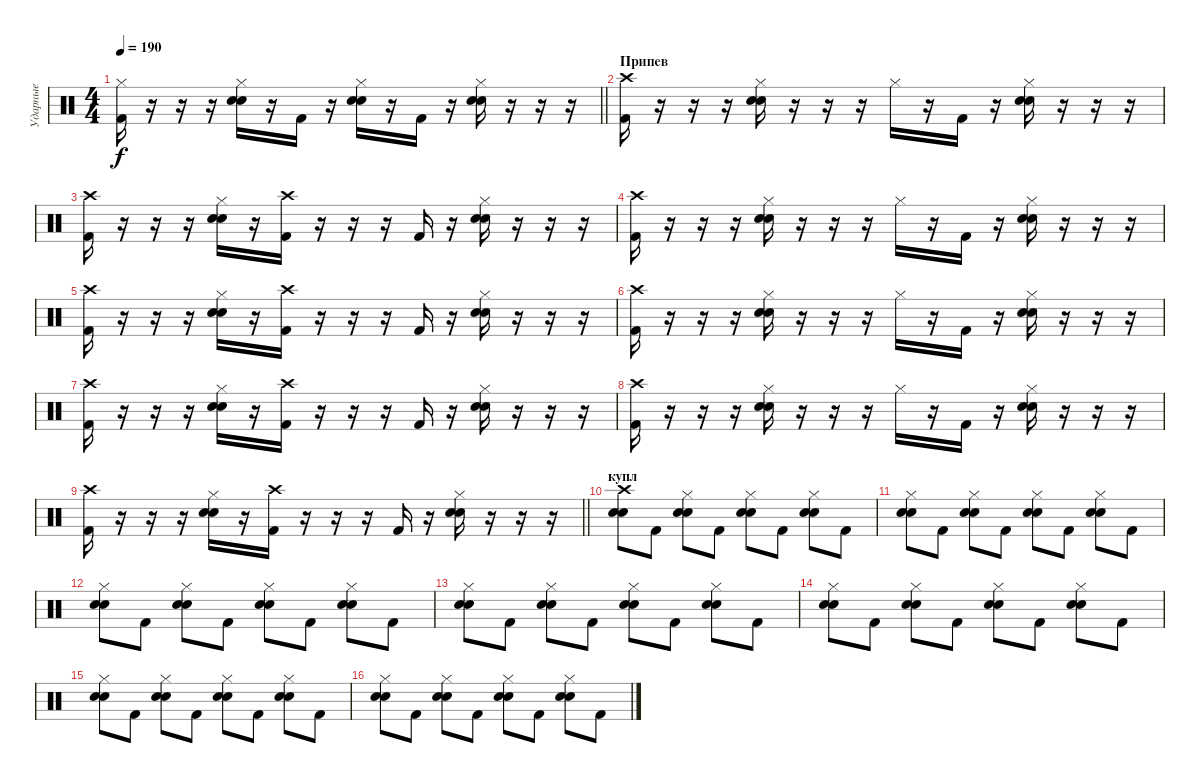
\track ("Ударные" "Ударные") {instrument percussion}
\staff {score}
\articulation defaults
\ts (4 4)
\tempo 190
\clef neutral
\barLineRight lightlight
\ks c
("Kick (hit) 2" "Hi-Hat (closed)").16{dy f} r.16 r.16 r.16 ("Snare (hit) 2" "Electric Snare (hit)" "Hi-Hat (closed)").16 r.16 "Kick (hit) 2".16 r.16 ("Snare (hit) 2" "Electric Snare (hit)" "Hi-Hat (closed)").16 r.16 "Kick (hit) 2".16 r.16 ("Snare (hit) 2" "Electric Snare (hit)" "Hi-Hat (closed)").16 r.16 r.16 r.16 |
\section ("" "Припев")
("Kick (hit) 2" "Crash high (hit)").16 r.16 r.16 r.16 ("Snare (hit) 2" "Electric Snare (hit)" "Hi-Hat (closed)").16 r.16 r.16 r.16 "Hi-Hat (closed)".16 r.16 "Kick (hit) 2".16 r.16 ("Snare (hit) 2" "Electric Snare (hit)" "Hi-Hat (closed)").16 r.16 r.16 r.16 |
("Kick (hit) 2" "Crash high (hit)").16 r.16 r.16 r.16 ("Snare (hit) 2" "Electric Snare (hit)" "Hi-Hat (closed)").16 r.16 ("Kick (hit) 2" "Crash high (hit)").16 r.16 r.16 r.16 "Kick (hit) 2".16 r.16 ("Snare (hit) 2" "Electric Snare (hit)" "Hi-Hat (closed)").16 r.16 r.16 r.16 |
("Kick (hit) 2" "Crash high (hit)").16 r.16 r.16 r.16 ("Snare (hit) 2" "Electric Snare (hit)" "Hi-Hat (closed)").16 r.16 r.16 r.16 "Hi-Hat (closed)".16 r.16 "Kick (hit) 2".16 r.16 ("Snare (hit) 2" "Electric Snare (hit)" "Hi-Hat (closed)").16 r.16 r.16 r.16 |
("Kick (hit) 2" "Crash high (hit)").16 r.16 r.16 r.16 ("Snare (hit) 2" "Electric Snare (hit)" "Hi-Hat (closed)").16 r.16 ("Kick (hit) 2" "Crash high (hit)").16 r.16 r.16 r.16 "Kick (hit) 2".16 r.16 ("Snare (hit) 2" "Electric Snare (hit)" "Hi-Hat (closed)").16 r.16 r.16 r.16 |
("Kick (hit) 2" "Crash high (hit)").16 r.16 r.16 r.16 ("Snare (hit) 2" "Electric Snare (hit)" "Hi-Hat (closed)").16 r.16 r.16 r.16 "Hi-Hat (closed)".16 r.16 "Kick (hit) 2".16 r.16 ("Snare (hit) 2" "Electric Snare (hit)" "Hi-Hat (closed)").16 r.16 r.16 r.16 |
("Kick (hit) 2" "Crash high (hit)").16 r.16 r.16 r.16 ("Snare (hit) 2" "Electric Snare (hit)" "Hi-Hat (closed)").16 r.16 ("Kick (hit) 2" "Crash high (hit)").16 r.16 r.16 r.16 "Kick (hit) 2".16 r.16 ("Snare (hit) 2" "Electric Snare (hit)" "Hi-Hat (closed)").16 r.16 r.16 r.16 |
("Kick (hit) 2" "Crash high (hit)").16 r.16 r.16 r.16 ("Snare (hit) 2" "Electric Snare (hit)" "Hi-Hat (closed)").16 r.16 r.16 r.16 "Hi-Hat (closed)".16 r.16 "Kick (hit) 2".16 r.16 ("Snare (hit) 2" "Electric Snare (hit)" "Hi-Hat (closed)").16 r.16 r.16 r.16 |
\barLineRight lightlight
("Kick (hit) 2" "Crash high (hit)").16 r.16 r.16 r.16 ("Snare (hit) 2" "Electric Snare (hit)" "Hi-Hat (closed)").16 r.16 ("Kick (hit) 2" "Crash high (hit)").16 r.16 r.16 r.16 "Kick (hit) 2".16 r.16 ("Snare (hit) 2" "Electric Snare (hit)" "Hi-Hat (closed)").16 r.16 r.16 r.16 |
\section ("" "купл")
("Snare (hit) 2" "Electric Snare (hit)" "Crash high (hit)").8 "Kick (hit) 2".8 ("Snare (hit) 2" "Electric Snare (hit)" "Hi-Hat (closed)").8 "Kick (hit) 2".8 ("Snare (hit) 2" "Electric Snare (hit)" "Hi-Hat (closed)").8 "Kick (hit) 2".8 ("Snare (hit) 2" "Electric Snare (hit)" "Hi-Hat (closed)").8 "Kick (hit) 2".8 |
("Snare (hit) 2" "Electric Snare (hit)" "Hi-Hat (closed)").8 "Kick (hit) 2".8 ("Snare (hit) 2" "Electric Snare (hit)" "Hi-Hat (closed)").8 "Kick (hit) 2".8 ("Snare (hit) 2" "Electric Snare (hit)" "Hi-Hat (closed)").8 "Kick (hit) 2".8 ("Snare (hit) 2" "Electric Snare (hit)" "Hi-Hat (closed)").8 "Kick (hit) 2".8 |
("Snare (hit) 2" "Electric Snare (hit)" "Hi-Hat (closed)").8 "Kick (hit) 2".8 ("Snare (hit) 2" "Electric Snare (hit)" "Hi-Hat (closed)").8 "Kick (hit) 2".8 ("Snare (hit) 2" "Electric Snare (hit)" "Hi-Hat (closed)").8 "Kick (hit) 2".8 ("Snare (hit) 2" "Electric Snare (hit)" "Hi-Hat (closed)").8 "Kick (hit) 2".8 |
("Snare (hit) 2" "Electric Snare (hit)" "Hi-Hat (closed)").8 "Kick (hit) 2".8 ("Snare (hit) 2" "Electric Snare (hit)" "Hi-Hat (closed)").8 "Kick (hit) 2".8 ("Snare (hit) 2" "Electric Snare (hit)" "Hi-Hat (closed)").8 "Kick (hit) 2".8 ("Snare (hit) 2" "Electric Snare (hit)" "Hi-Hat (closed)").8 "Kick (hit) 2".8 |
("Snare (hit) 2" "Electric Snare (hit)" "Hi-Hat (closed)").8 "Kick (hit) 2".8 ("Snare (hit) 2" "Electric Snare (hit)" "Hi-Hat (closed)").8 "Kick (hit) 2".8 ("Snare (hit) 2" "Electric Snare (hit)" "Hi-Hat (closed)").8 "Kick (hit) 2".8 ("Snare (hit) 2" "Electric Snare (hit)" "Hi-Hat (closed)").8 "Kick (hit) 2".8 |
("Snare (hit) 2" "Electric Snare (hit)" "Hi-Hat (closed)").8 "Kick (hit) 2".8 ("Snare (hit) 2" "Electric Snare (hit)" "Hi-Hat (closed)").8 "Kick (hit) 2".8 ("Snare (hit) 2" "Electric Snare (hit)" "Hi-Hat (closed)").8 "Kick (hit) 2".8 ("Snare (hit) 2" "Electric Snare (hit)" "Hi-Hat (closed)").8 "Kick (hit) 2".8 |
("Snare (hit) 2" "Electric Snare (hit)" "Hi-Hat (closed)").8 "Kick (hit) 2".8 ("Snare (hit) 2" "Electric Snare (hit)" "Hi-Hat (closed)").8 "Kick (hit) 2".8 ("Snare (hit) 2" "Electric Snare (hit)" "Hi-Hat (closed)").8 "Kick (hit) 2".8 ("Snare (hit) 2" "Electric Snare (hit)" "Hi-Hat (closed)").8 "Kick (hit) 2".8
